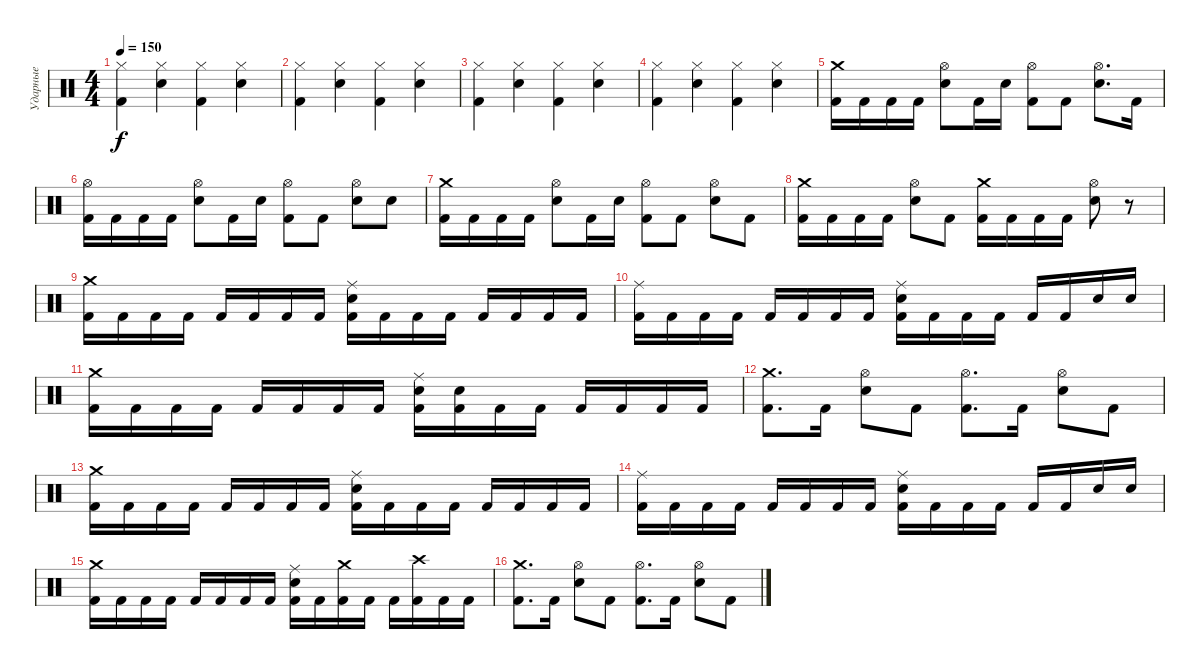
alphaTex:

\track ("Ударные" "Ударные") {instrument percussion}
\staff {score}
\articulation defaults
\ts (4 4)
\tempo 150
\clef neutral
\ks c
("Kick (hit) 2" "Hi-Hat (closed)").4{dy f} ("Snare (hit) 2" "Hi-Hat (closed)").4 ("Kick (hit) 2" "Hi-Hat (closed)").4 ("Snare (hit) 2" "Hi-Hat (closed)").4 |
("Kick (hit) 2" "Hi-Hat (closed)").4 ("Snare (hit) 2" "Hi-Hat (closed)").4 ("Kick (hit) 2" "Hi-Hat (closed)").4 ("Snare (hit) 2" "Hi-Hat (closed)").4 |
("Kick (hit) 2" "Hi-Hat (closed)").4 ("Snare (hit) 2" "Hi-Hat (closed)").4 ("Kick (hit) 2" "Hi-Hat (closed)").4 ("Snare (hit) 2" "Hi-Hat (closed)").4 |
("Kick (hit) 2" "Hi-Hat (closed)").4 ("Snare (hit) 2" "Hi-Hat (closed)").4 ("Kick (hit) 2" "Hi-Hat (closed)").4 ("Snare (hit) 2" "Hi-Hat (closed)").4 |
("Crash medium (hit)" "Kick (hit) 2").16 "Kick (hit) 2".16 "Kick (hit) 2".16 "Kick (hit) 2".16 ("Hi-Hat (open)" "Snare (hit) 2").8 "Kick (hit) 2".16 "Snare (hit) 2".16 ("Hi-Hat (open)" "Kick (hit) 2").8 "Kick (hit) 2".8 ("Hi-Hat (open)" "Snare (hit) 2").8{d} "Kick (hit) 2".16 |
("Hi-Hat (open)" "Kick (hit) 2").16 "Kick (hit) 2".16 "Kick (hit) 2".16 "Kick (hit) 2".16 ("Hi-Hat (open)" "Snare (hit) 2").8 "Kick (hit) 2".16 "Snare (hit) 2".16 ("Hi-Hat (open)" "Kick (hit) 2").8 "Kick (hit) 2".8 ("Hi-Hat (open)" "Snare (hit) 2").8 "Snare (hit) 2".8 |
("Crash medium (hit)" "Kick (hit) 2").16 "Kick (hit) 2".16 "Kick (hit) 2".16 "Kick (hit) 2".16 ("Hi-Hat (open)" "Snare (hit) 2").8 "Kick (hit) 2".16 "Snare (hit) 2".16 ("Hi-Hat (open)" "Kick (hit) 2").8 "Kick (hit) 2".8 ("Hi-Hat (open)" "Snare (hit) 2").8 "Kick (hit) 2".8 |
("Crash medium (hit)" "Kick (hit) 2").16 "Kick (hit) 2".16 "Kick (hit) 2".16 "Kick (hit) 2".16 ("Hi-Hat (open)" "Snare (hit) 2").8 "Kick (hit) 2".8 ("Crash medium (hit)" "Kick (hit) 2").16 "Kick (hit) 2".16 "Kick (hit) 2".16 "Kick (hit) 2".16 ("Hi-Hat (open)" "Snare (hit) 2").8 r.8 |
("Crash medium (hit)" "Kick (hit) 2").16 "Kick (hit) 2".16 "Kick (hit) 2".16 "Kick (hit) 2".16 "Kick (hit) 2".16 "Kick (hit) 2".16 "Kick (hit) 2".16 "Kick (hit) 2".16 ("Ride (middle)" "Snare (hit) 2" "Kick (hit) 2").16 "Kick (hit) 2".16 "Kick (hit) 2".16 "Kick (hit) 2".16 "Kick (hit) 2".16 "Kick (hit) 2".16 "Kick (hit) 2".16 "Kick (hit) 2".16 |
("Ride (middle)" "Kick (hit) 2").16 "Kick (hit) 2".16 "Kick (hit) 2".16 "Kick (hit) 2".16 "Kick (hit) 2".16 "Kick (hit) 2".16 "Kick (hit) 2".16 "Kick (hit) 2".16 ("Ride (middle)" "Snare (hit) 2" "Kick (hit) 2").16 "Kick (hit) 2".16 "Kick (hit) 2".16 "Kick (hit) 2".16 "Kick (hit) 2".16 "Kick (hit) 2".16 "Snare (hit) 2".16 "Snare (hit) 2".16 |
("Crash medium (hit)" "Kick (hit) 2").16 "Kick (hit) 2".16 "Kick (hit) 2".16 "Kick (hit) 2".16 "Kick (hit) 2".16 "Kick (hit) 2".16 "Kick (hit) 2".16 "Kick (hit) 2".16 ("Ride (middle)" "Snare (hit) 2" "Kick (hit) 2").16 ("Snare (hit) 2" "Kick (hit) 2").16 "Kick (hit) 2".16 "Kick (hit) 2".16 "Kick (hit) 2".16 "Kick (hit) 2".16 "Kick (hit) 2".16 "Kick (hit) 2".16 |
("Crash medium (hit)" "Kick (hit) 2").8{d} "Kick (hit) 2".16 ("Hi-Hat (open)" "Snare (hit) 2").8 "Kick (hit) 2".8 ("Hi-Hat (open)" "Kick (hit) 2").8{d} "Kick (hit) 2".16 ("Hi-Hat (open)" "Snare (hit) 2").8 "Kick (hit) 2".8 |
("Crash medium (hit)" "Kick (hit) 2").16 "Kick (hit) 2".16 "Kick (hit) 2".16 "Kick (hit) 2".16 "Kick (hit) 2".16 "Kick (hit) 2".16 "Kick (hit) 2".16 "Kick (hit) 2".16 ("Ride (middle)" "Snare (hit) 2" "Kick (hit) 2").16 "Kick (hit) 2".16 "Kick (hit) 2".16 "Kick (hit) 2".16 "Kick (hit) 2".16 "Kick (hit) 2".16 "Kick (hit) 2".16 "Kick (hit) 2".16 |
("Ride (middle)" "Kick (hit) 2").16 "Kick (hit) 2".16 "Kick (hit) 2".16 "Kick (hit) 2".16 "Kick (hit) 2".16 "Kick (hit) 2".16 "Kick (hit) 2".16 "Kick (hit) 2".16 ("Ride (middle)" "Snare (hit) 2" "Kick (hit) 2").16 "Kick (hit) 2".16 "Kick (hit) 2".16 "Kick (hit) 2".16 "Kick (hit) 2".16 "Kick (hit) 2".16 "Snare (hit) 2".16 "Snare (hit) 2".16 |
("Crash medium (hit)" "Kick (hit) 2").16 "Kick (hit) 2".16 "Kick (hit) 2".16 "Kick (hit) 2".16 "Kick (hit) 2".16 "Kick (hit) 2".16 "Kick (hit) 2".16 "Kick (hit) 2".16 ("Ride (middle)" "Snare (hit) 2" "Kick (hit) 2").16 "Kick (hit) 2".16 ("Crash medium (hit)" "Kick (hit) 2").16 "Kick (hit) 2".16 "Kick (hit) 2".16 ("Crash high (hit)" "Kick (hit) 2").16 "Kick (hit) 2".16 "Kick (hit) 2".16 |
("Crash medium (hit)" "Kick (hit) 2").8{d} "Kick (hit) 2".16 ("Hi-Hat (open)" "Snare (hit) 2").8 "Kick (hit) 2".8 ("Hi-Hat (open)" "Kick (hit) 2").8{d} "Kick (hit) 2".16 ("Hi-Hat (open)" "Snare (hit) 2").8 "Kick (hit) 2".8
